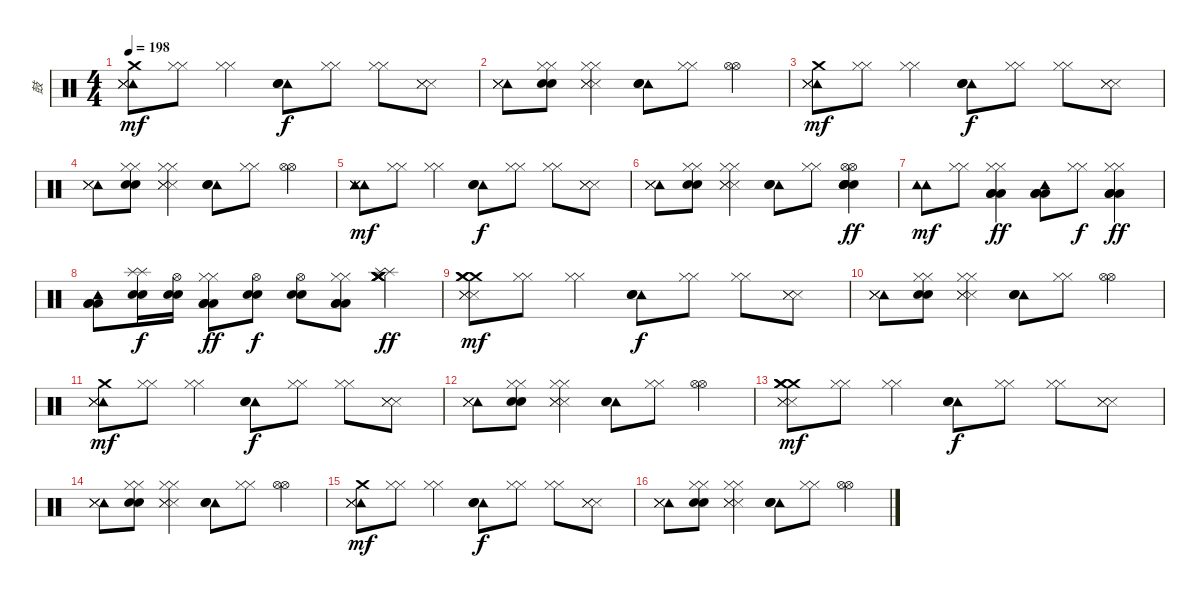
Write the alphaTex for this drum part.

\track ("鼓" "鼓") {instrument percussion}
\staff {score}
\articulation defaults
\ts (4 4)
\tempo 198
\clef neutral
\ks c
("Tambourine (hit)" "Crash medium (hit)" "Metronome (hit)" "Metronome (hit)" "Metronome (hit)").8{dy mf} ("Hi-Hat (closed)" "Hi-Hat (closed)").8 ("Hi-Hat (closed)" "Hi-Hat (closed)").4 ("Tambourine (hit)" "Metronome (bell)" "Metronome (bell)").8{dy f} ("Hi-Hat (closed)" "Hi-Hat (closed)").8 ("Hi-Hat (closed)" "Hi-Hat (closed)").8 ("Metronome (hit)" "Metronome (hit)" "Metronome (hit)").8 |
("Tambourine (hit)" "Metronome (hit)" "Metronome (hit)" "Metronome (hit)").8 ("Hi-Hat (closed)" "Hi-Hat (closed)" "Metronome (bell)" "Metronome (bell)").8 ("Hi-Hat (closed)" "Hi-Hat (closed)" "Metronome (hit)" "Metronome (hit)" "Metronome (hit)").4 ("Tambourine (hit)" "Metronome (bell)" "Metronome (bell)").8 ("Hi-Hat (closed)" "Hi-Hat (closed)").8 ("Hi-Hat (open)" "Hi-Hat (open)").4 |
("Tambourine (hit)" "Crash medium (hit)" "Metronome (hit)" "Metronome (hit)" "Metronome (hit)").8{dy mf} ("Hi-Hat (closed)" "Hi-Hat (closed)").8 ("Hi-Hat (closed)" "Hi-Hat (closed)").4 ("Tambourine (hit)" "Metronome (bell)" "Metronome (bell)").8{dy f} ("Hi-Hat (closed)" "Hi-Hat (closed)").8 ("Hi-Hat (closed)" "Hi-Hat (closed)").8 ("Metronome (hit)" "Metronome (hit)" "Metronome (hit)").8 |
("Tambourine (hit)" "Metronome (hit)" "Metronome (hit)" "Metronome (hit)").8 ("Hi-Hat (closed)" "Hi-Hat (closed)" "Metronome (bell)" "Metronome (bell)").8 ("Hi-Hat (closed)" "Hi-Hat (closed)" "Metronome (hit)" "Metronome (hit)" "Metronome (hit)").4 ("Tambourine (hit)" "Metronome (bell)" "Metronome (bell)").8 ("Hi-Hat (closed)" "Hi-Hat (closed)").8 ("Hi-Hat (open)" "Hi-Hat (open)").4 |
("Tambourine (hit)" "Tambourine (hit)" "Metronome (hit)" "Metronome (hit)" "Metronome (hit)").8{dy mf} ("Hi-Hat (closed)" "Hi-Hat (closed)").8 ("Hi-Hat (closed)" "Hi-Hat (closed)").4 ("Tambourine (hit)" "Metronome (bell)" "Metronome (bell)").8{dy f} ("Hi-Hat (closed)" "Hi-Hat (closed)").8 ("Hi-Hat (closed)" "Hi-Hat (closed)").8 ("Metronome (hit)" "Metronome (hit)" "Metronome (hit)").8 |
("Tambourine (hit)" "Metronome (hit)" "Metronome (hit)" "Metronome (hit)").8 ("Hi-Hat (closed)" "Hi-Hat (closed)" "Metronome (bell)" "Metronome (bell)").8 ("Hi-Hat (closed)" "Hi-Hat (closed)" "Metronome (hit)" "Metronome (hit)" "Metronome (hit)").4 ("Tambourine (hit)" "Metronome (bell)" "Metronome (bell)").8 ("Hi-Hat (closed)" "Hi-Hat (closed)").8 ("Hi-Hat (open)" "Hi-Hat (open)" "Metronome (bell)" "Metronome (bell)" "Metronome (bell)" "Metronome (bell)").4{dy ff} |
("Tambourine (hit)" "Tambourine (hit)").8{dy mf} ("Hi-Hat (closed)" "Hi-Hat (closed)").8 ("Hi-Hat (closed)" "Hi-Hat (closed)" "Low Tom (hit)" "Low Tom (hit)" "Low Tom (hit)").4{dy ff} ("Tambourine (hit)" "Low Tom (hit)" "Low Tom (hit)" "Low Tom (hit)").8 ("Hi-Hat (closed)" "Hi-Hat (closed)").8{dy f} ("Hi-Hat (closed)" "Hi-Hat (closed)" "Low Tom (hit)" "Low Tom (hit)" "Low Tom (hit)").4{dy ff} |
("Tambourine (hit)" "Low Tom (hit)" "Low Tom (hit)" "Low Tom (hit)").8 ("Splash (hit)" "Splash (hit)" "Metronome (bell)" "Metronome (bell)").16{dy f} ("Hi-Hat (open)" "Metronome (bell)" "Metronome (bell)").16 ("Hi-Hat (closed)" "Hi-Hat (closed)" "Low Tom (hit)" "Low Tom (hit)" "Low Tom (hit)").8{dy ff} ("Hi-Hat (open)" "Metronome (bell)" "Metronome (bell)").8{dy f} ("Hi-Hat (open)" "Metronome (bell)" "Metronome (bell)").8 ("Hi-Hat (closed)" "Hi-Hat (closed)" "Low Floor Tom (hit)" "Low Floor Tom (hit)" "Low Floor Tom (hit)").8 ("Crash medium (hit)" "Splash (hit)" "Splash (hit)" "Crash medium (hit)" "Crash medium (hit)" "Crash medium (hit)").4{dy ff} |
("Crash medium (hit)" "Crash medium (hit)" "Metronome (hit)" "Metronome (hit)" "Metronome (hit)" "Crash medium (hit)").8{dy mf} ("Hi-Hat (closed)" "Hi-Hat (closed)").8 ("Hi-Hat (closed)" "Hi-Hat (closed)").4 ("Tambourine (hit)" "Metronome (bell)" "Metronome (bell)").8{dy f} ("Hi-Hat (closed)" "Hi-Hat (closed)").8 ("Hi-Hat (closed)" "Hi-Hat (closed)").8 ("Metronome (hit)" "Metronome (hit)" "Metronome (hit)").8 |
("Tambourine (hit)" "Metronome (hit)" "Metronome (hit)" "Metronome (hit)").8 ("Hi-Hat (closed)" "Hi-Hat (closed)" "Metronome (bell)" "Metronome (bell)").8 ("Hi-Hat (closed)" "Hi-Hat (closed)" "Metronome (hit)" "Metronome (hit)" "Metronome (hit)").4 ("Tambourine (hit)" "Metronome (bell)" "Metronome (bell)").8 ("Hi-Hat (closed)" "Hi-Hat (closed)").8 ("Hi-Hat (open)" "Hi-Hat (open)").4 |
("Tambourine (hit)" "Crash medium (hit)" "Metronome (hit)" "Metronome (hit)" "Metronome (hit)").8{dy mf} ("Hi-Hat (closed)" "Hi-Hat (closed)").8 ("Hi-Hat (closed)" "Hi-Hat (closed)").4 ("Tambourine (hit)" "Metronome (bell)" "Metronome (bell)").8{dy f} ("Hi-Hat (closed)" "Hi-Hat (closed)").8 ("Hi-Hat (closed)" "Hi-Hat (closed)").8 ("Metronome (hit)" "Metronome (hit)" "Metronome (hit)").8 |
("Tambourine (hit)" "Metronome (hit)" "Metronome (hit)" "Metronome (hit)").8 ("Hi-Hat (closed)" "Hi-Hat (closed)" "Metronome (bell)" "Metronome (bell)").8 ("Hi-Hat (closed)" "Hi-Hat (closed)" "Metronome (hit)" "Metronome (hit)" "Metronome (hit)").4 ("Tambourine (hit)" "Metronome (bell)" "Metronome (bell)").8 ("Hi-Hat (closed)" "Hi-Hat (closed)").8 ("Hi-Hat (open)" "Hi-Hat (open)").4 |
("Crash medium (hit)" "Crash medium (hit)" "Metronome (hit)" "Metronome (hit)" "Metronome (hit)" "Crash medium (hit)").8{dy mf} ("Hi-Hat (closed)" "Hi-Hat (closed)").8 ("Hi-Hat (closed)" "Hi-Hat (closed)").4 ("Tambourine (hit)" "Metronome (bell)" "Metronome (bell)").8{dy f} ("Hi-Hat (closed)" "Hi-Hat (closed)").8 ("Hi-Hat (closed)" "Hi-Hat (closed)").8 ("Metronome (hit)" "Metronome (hit)" "Metronome (hit)").8 |
("Tambourine (hit)" "Metronome (hit)" "Metronome (hit)" "Metronome (hit)").8 ("Hi-Hat (closed)" "Hi-Hat (closed)" "Metronome (bell)" "Metronome (bell)").8 ("Hi-Hat (closed)" "Hi-Hat (closed)" "Metronome (hit)" "Metronome (hit)" "Metronome (hit)").4 ("Tambourine (hit)" "Metronome (bell)" "Metronome (bell)").8 ("Hi-Hat (closed)" "Hi-Hat (closed)").8 ("Hi-Hat (open)" "Hi-Hat (open)").4 |
("Tambourine (hit)" "Crash medium (hit)" "Metronome (hit)" "Metronome (hit)" "Metronome (hit)").8{dy mf} ("Hi-Hat (closed)" "Hi-Hat (closed)").8 ("Hi-Hat (closed)" "Hi-Hat (closed)").4 ("Tambourine (hit)" "Metronome (bell)" "Metronome (bell)").8{dy f} ("Hi-Hat (closed)" "Hi-Hat (closed)").8 ("Hi-Hat (closed)" "Hi-Hat (closed)").8 ("Metronome (hit)" "Metronome (hit)" "Metronome (hit)").8 |
("Tambourine (hit)" "Metronome (hit)" "Metronome (hit)" "Metronome (hit)").8 ("Hi-Hat (closed)" "Hi-Hat (closed)" "Metronome (bell)" "Metronome (bell)").8 ("Hi-Hat (closed)" "Hi-Hat (closed)" "Metronome (hit)" "Metronome (hit)" "Metronome (hit)").4 ("Tambourine (hit)" "Metronome (bell)" "Metronome (bell)").8 ("Hi-Hat (closed)" "Hi-Hat (closed)").8 ("Hi-Hat (open)" "Hi-Hat (open)").4
